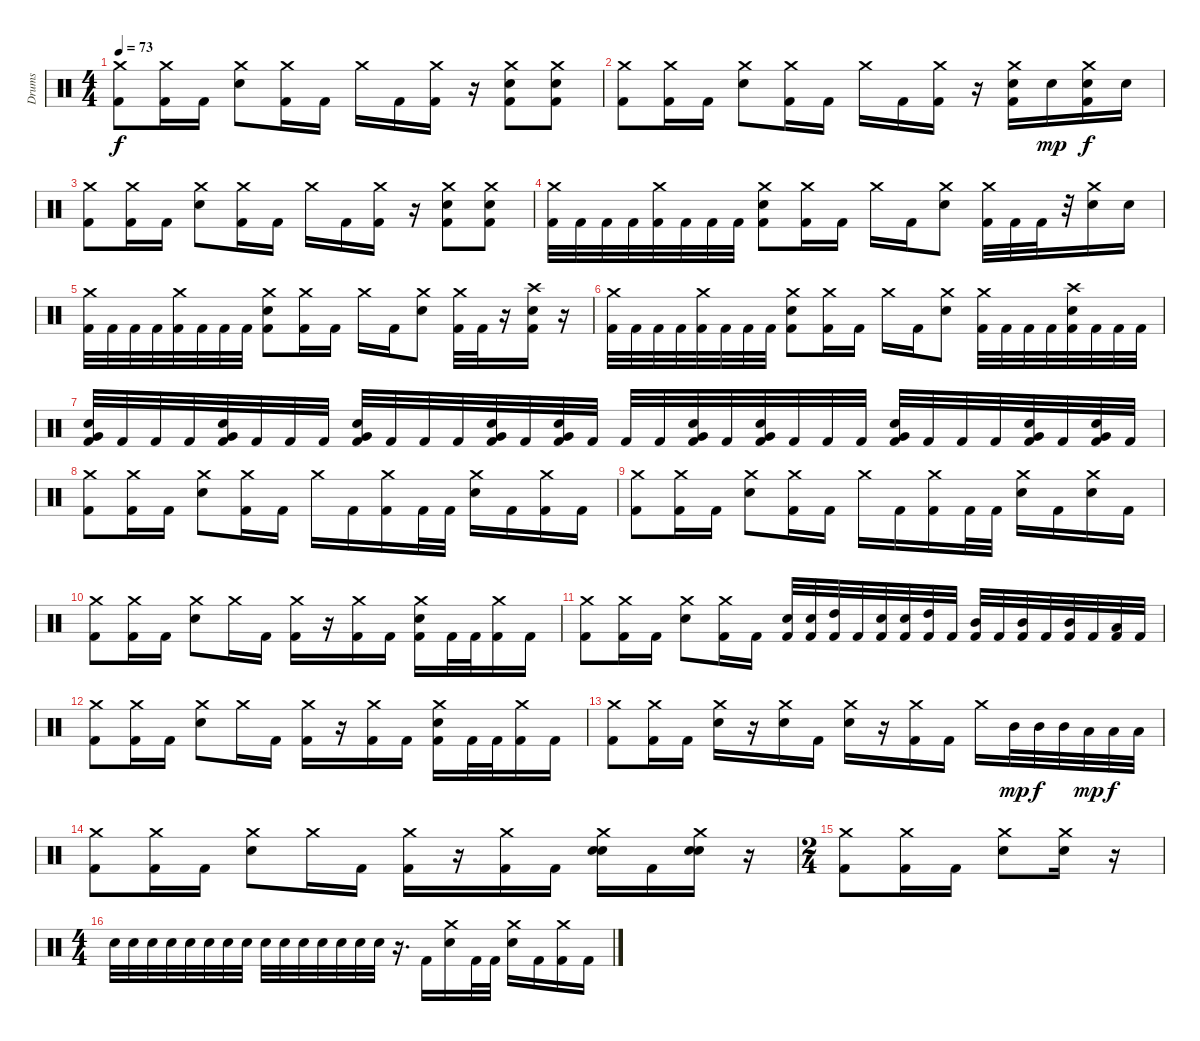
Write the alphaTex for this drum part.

\track ("Drums" "Drums") {instrument percussion}
\staff {score}
\articulation defaults
\ts (4 4)
\tempo 73
\clef neutral
\ks c
("Crash medium (hit)" "Kick (hit) 2").8{dy f} ("Crash medium (hit)" "Kick (hit) 2").16 "Kick (hit) 2".16 ("Crash medium (hit)" "Electric Snare (hit)").8 ("Crash medium (hit)" "Kick (hit) 2").16 "Kick (hit) 2".16 "Crash medium (hit)".16 "Kick (hit) 2".16 ("Crash medium (hit)" "Kick (hit) 2").16 r.16 ("Crash medium (hit)" "Electric Snare (hit)" "Kick (hit) 2").8 ("Crash medium (hit)" "Electric Snare (hit)" "Kick (hit) 2").8 |
("Crash medium (hit)" "Kick (hit) 2").8 ("Crash medium (hit)" "Kick (hit) 2").16 "Kick (hit) 2".16 ("Crash medium (hit)" "Electric Snare (hit)").8 ("Crash medium (hit)" "Kick (hit) 2").16 "Kick (hit) 2".16 "Crash medium (hit)".16 "Kick (hit) 2".16 ("Crash medium (hit)" "Kick (hit) 2").16 r.16 ("Crash medium (hit)" "Electric Snare (hit)" "Kick (hit) 2").16 "Electric Snare (hit)".16{dy mp} ("Crash medium (hit)" "Electric Snare (hit)" "Kick (hit) 2").16{dy f} "Electric Snare (hit)".16 |
("Crash medium (hit)" "Kick (hit) 2").8 ("Crash medium (hit)" "Kick (hit) 2").16 "Kick (hit) 2".16 ("Crash medium (hit)" "Electric Snare (hit)").8 ("Crash medium (hit)" "Kick (hit) 2").16 "Kick (hit) 2".16 "Crash medium (hit)".16 "Kick (hit) 2".16 ("Crash medium (hit)" "Kick (hit) 2").16 r.16 ("Crash medium (hit)" "Electric Snare (hit)" "Kick (hit) 2").8 ("Crash medium (hit)" "Electric Snare (hit)" "Kick (hit) 2").8 |
("Crash medium (hit)" "Kick (hit) 2").32 "Kick (hit) 2".32 "Kick (hit) 2".32 "Kick (hit) 2".32 ("Crash medium (hit)" "Kick (hit) 2").32 "Kick (hit) 2".32 "Kick (hit) 2".32 "Kick (hit) 2".32 ("Crash medium (hit)" "Electric Snare (hit)" "Kick (hit) 2").8 ("Crash medium (hit)" "Kick (hit) 2").16 "Kick (hit) 2".16 "Crash medium (hit)".16 "Kick (hit) 2".16 ("Crash medium (hit)" "Electric Snare (hit)").8 ("Crash medium (hit)" "Kick (hit) 2").32 "Kick (hit) 2".32 "Kick (hit) 2".32 r.32 ("Crash medium (hit)" "Electric Snare (hit)").16 "Electric Snare (hit)".16 |
("Crash medium (hit)" "Kick (hit) 2").32 "Kick (hit) 2".32 "Kick (hit) 2".32 "Kick (hit) 2".32 ("Crash medium (hit)" "Kick (hit) 2").32 "Kick (hit) 2".32 "Kick (hit) 2".32 "Kick (hit) 2".32 ("Crash medium (hit)" "Electric Snare (hit)" "Kick (hit) 2").8 ("Crash medium (hit)" "Kick (hit) 2").16 "Kick (hit) 2".16 "Crash medium (hit)".16 "Kick (hit) 2".16 ("Crash medium (hit)" "Electric Snare (hit)").8 ("Crash medium (hit)" "Kick (hit) 2").32 "Kick (hit) 2".32 r.16 ("Crash high (hit)" "Electric Snare (hit)" "Kick (hit) 2").16 r.16 |
("Crash medium (hit)" "Kick (hit) 2").32 "Kick (hit) 2".32 "Kick (hit) 2".32 "Kick (hit) 2".32 ("Crash medium (hit)" "Kick (hit) 2").32 "Kick (hit) 2".32 "Kick (hit) 2".32 "Kick (hit) 2".32 ("Crash medium (hit)" "Electric Snare (hit)" "Kick (hit) 2").8 ("Crash medium (hit)" "Kick (hit) 2").16 "Kick (hit) 2".16 "Crash medium (hit)".16 "Kick (hit) 2".16 ("Crash medium (hit)" "Electric Snare (hit)").8 ("Crash medium (hit)" "Kick (hit) 2").32 "Kick (hit) 2".32 "Kick (hit) 2".32 "Kick (hit) 2".32 ("Crash high (hit)" "Electric Snare (hit)" "Kick (hit) 2").32 "Kick (hit) 2".32 "Kick (hit) 2".32 "Kick (hit) 2".32 |
("Very Low Tom (hit)" "Electric Snare (hit)" "Kick (hit) 2").32 "Kick (hit) 2".32 "Kick (hit) 2".32 "Kick (hit) 2".32 ("Very Low Tom (hit)" "Electric Snare (hit)" "Kick (hit) 2").32 "Kick (hit) 2".32 "Kick (hit) 2".32 "Kick (hit) 2".32 ("Very Low Tom (hit)" "Electric Snare (hit)" "Kick (hit) 2").32 "Kick (hit) 2".32 "Kick (hit) 2".32 "Kick (hit) 2".32 ("Very Low Tom (hit)" "Electric Snare (hit)" "Kick (hit) 2").32 "Kick (hit) 2".32 ("Very Low Tom (hit)" "Electric Snare (hit)" "Kick (hit) 2").32 "Kick (hit) 2".32 "Kick (hit) 2".32 "Kick (hit) 2".32 ("Very Low Tom (hit)" "Electric Snare (hit)" "Kick (hit) 2").32 "Kick (hit) 2".32 ("Very Low Tom (hit)" "Electric Snare (hit)" "Kick (hit) 2").32 "Kick (hit) 2".32 "Kick (hit) 2".32 "Kick (hit) 2".32 ("Very Low Tom (hit)" "Electric Snare (hit)" "Kick (hit) 2").32 "Kick (hit) 2".32 "Kick (hit) 2".32 "Kick (hit) 2".32 ("Very Low Tom (hit)" "Electric Snare (hit)" "Kick (hit) 2").32 "Kick (hit) 2".32 ("Very Low Tom (hit)" "Electric Snare (hit)" "Kick (hit) 2").32 "Kick (hit) 2".32 |
("Crash medium (hit)" "Kick (hit) 2").8 ("Crash medium (hit)" "Kick (hit) 2").16 "Kick (hit) 2".16 ("Crash medium (hit)" "Electric Snare (hit)").8 ("Crash medium (hit)" "Kick (hit) 2").16 "Kick (hit) 2".16 "Crash medium (hit)".16 "Kick (hit) 2".16 ("Crash medium (hit)" "Kick (hit) 2").16 "Kick (hit) 2".32 "Kick (hit) 2".32 ("Crash medium (hit)" "Electric Snare (hit)").16 "Kick (hit) 2".16 ("Crash medium (hit)" "Kick (hit) 2").16 "Kick (hit) 2".16 |
("Crash medium (hit)" "Kick (hit) 2").8 ("Crash medium (hit)" "Kick (hit) 2").16 "Kick (hit) 2".16 ("Crash medium (hit)" "Electric Snare (hit)").8 ("Crash medium (hit)" "Kick (hit) 2").16 "Kick (hit) 2".16 "Crash medium (hit)".16 "Kick (hit) 2".16 ("Crash medium (hit)" "Kick (hit) 2").16 "Kick (hit) 2".32 "Kick (hit) 2".32 ("Crash medium (hit)" "Electric Snare (hit)").16 "Kick (hit) 2".16 ("Crash medium (hit)" "Electric Snare (hit)").16 "Kick (hit) 2".16 |
("Crash medium (hit)" "Kick (hit) 2").8 ("Crash medium (hit)" "Kick (hit) 2").16 "Kick (hit) 2".16 ("Crash medium (hit)" "Electric Snare (hit)").8 "Crash medium (hit)".16 "Kick (hit) 2".16 ("Crash medium (hit)" "Kick (hit) 2").16 r.16 ("Crash medium (hit)" "Kick (hit) 2").16 "Kick (hit) 2".16 ("Crash medium (hit)" "Electric Snare (hit)" "Kick (hit) 2").16 "Kick (hit) 2".32 "Kick (hit) 2".32 ("Crash medium (hit)" "Kick (hit) 2").16 "Kick (hit) 2".16 |
("Crash medium (hit)" "Kick (hit) 2").8 ("Crash medium (hit)" "Kick (hit) 2").16 "Kick (hit) 2".16 ("Crash medium (hit)" "Electric Snare (hit)").8 ("Crash medium (hit)" "Kick (hit) 2").16 "Kick (hit) 2".16 ("Snare (hit) 2" "Kick (hit) 2").32 ("Snare (hit) 2" "Kick (hit) 2").32 ("High Tom (hit)" "Kick (hit) 2").32 "Kick (hit) 2".32 ("Snare (hit) 2" "Kick (hit) 2").32 ("Snare (hit) 2" "Kick (hit) 2").32 ("High Tom (hit)" "Kick (hit) 2").32 "Kick (hit) 2".32 ("Mid Tom (hit)" "Kick (hit) 2").32 "Kick (hit) 2".32 ("Mid Tom (hit)" "Kick (hit) 2").32 "Kick (hit) 2".32 ("Mid Tom (hit)" "Kick (hit) 2").32 "Kick (hit) 2".32 ("Low Tom (hit)" "Kick (hit) 2").32 "Kick (hit) 2".32 |
("Crash medium (hit)" "Kick (hit) 2").8 ("Crash medium (hit)" "Kick (hit) 2").16 "Kick (hit) 2".16 ("Crash medium (hit)" "Electric Snare (hit)").8 "Crash medium (hit)".16 "Kick (hit) 2".16 ("Crash medium (hit)" "Kick (hit) 2").16 r.16 ("Crash medium (hit)" "Kick (hit) 2").16 "Kick (hit) 2".16 ("Crash medium (hit)" "Electric Snare (hit)" "Kick (hit) 2").16 "Kick (hit) 2".32 "Kick (hit) 2".32 ("Crash medium (hit)" "Kick (hit) 2").16 "Kick (hit) 2".16 |
("Crash medium (hit)" "Kick (hit) 2").8 ("Crash medium (hit)" "Kick (hit) 2").16 "Kick (hit) 2".16 ("Crash medium (hit)" "Electric Snare (hit)").16 r.16 ("Crash medium (hit)" "Snare (hit) 2").16 "Kick (hit) 2".16 ("Crash medium (hit)" "Snare (hit) 2").16 r.16 ("Crash medium (hit)" "Kick (hit) 2").16 "Kick (hit) 2".16 "Crash medium (hit)".16 "Mid Tom (hit)".32{dy mp} "Mid Tom (hit)".32{dy f} "Mid Tom (hit)".32 "Low Tom (hit)".32{dy mp} "Low Tom (hit)".32{dy f} "Low Tom (hit)".32 |
("Crash medium (hit)" "Kick (hit) 2").8 ("Crash medium (hit)" "Kick (hit) 2").16 "Kick (hit) 2".16 ("Crash medium (hit)" "Electric Snare (hit)").8 "Crash medium (hit)".16 "Kick (hit) 2".16 ("Crash medium (hit)" "Kick (hit) 2").16 r.16 ("Crash medium (hit)" "Kick (hit) 2").16 "Kick (hit) 2".16 ("Electric Snare (hit)" "Crash medium (hit)" "Electric Snare (hit)").16 "Kick (hit) 2".16 ("Electric Snare (hit)" "Crash medium (hit)" "Electric Snare (hit)").16 r.16 |
\ts (2 4)
("Crash medium (hit)" "Kick (hit) 2").8 ("Crash medium (hit)" "Kick (hit) 2").16 "Kick (hit) 2".16 ("Crash medium (hit)" "Electric Snare (hit)").8 ("Crash medium (hit)" "Electric Snare (hit)").16 r.16 |
\ts (4 4)
"Electric Snare (hit)".32 "Electric Snare (hit)".32 "Electric Snare (hit)".32 "Electric Snare (hit)".32 "Electric Snare (hit)".32 "Electric Snare (hit)".32 "Electric Snare (hit)".32 "Electric Snare (hit)".32 "Electric Snare (hit)".32 "Electric Snare (hit)".32 "Electric Snare (hit)".32 "Electric Snare (hit)".32 "Electric Snare (hit)".32 "Electric Snare (hit)".32 "Electric Snare (hit)".32 r.16{d} "Kick (hit) 2".16 ("Crash medium (hit)" "Electric Snare (hit)").16 "Kick (hit) 2".32 "Kick (hit) 2".32 ("Crash medium (hit)" "Electric Snare (hit)").16 "Kick (hit) 2".16 ("Crash medium (hit)" "Kick (hit) 2").16 "Kick (hit) 2".16
